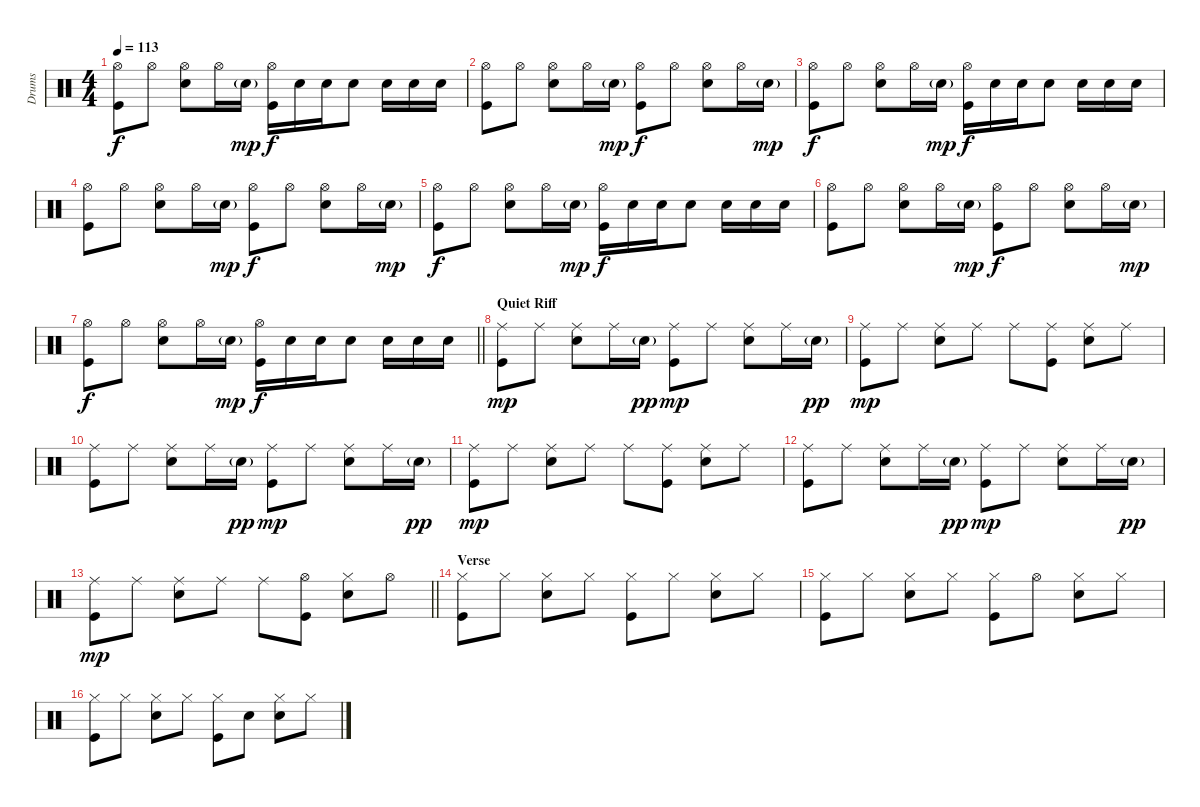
\track ("Drums" "Drums") {instrument percussion}
\staff {score}
\articulation defaults
\ts (4 4)
\tempo 113
\clef neutral
\ks c
("Hi-Hat (open)" "Kick (hit)").8{dy f} "Hi-Hat (open)".8 ("Hi-Hat (open)" "Snare (hit) 2").8 "Hi-Hat (open)".16 "Snare (hit) 2"{g}.16{dy mp} ("Hi-Hat (open)" "Kick (hit)").16{dy f} "Snare (hit) 2".16 "Snare (hit) 2".16 "Snare (hit) 2".8 "Snare (hit) 2".16 "Snare (hit) 2".16 "Snare (hit) 2".16 |
("Hi-Hat (open)" "Kick (hit)").8 "Hi-Hat (open)".8 ("Hi-Hat (open)" "Snare (hit) 2").8 "Hi-Hat (open)".16 "Snare (hit) 2"{g}.16{dy mp} ("Hi-Hat (open)" "Kick (hit)").8{dy f} "Hi-Hat (open)".8 ("Hi-Hat (open)" "Snare (hit) 2").8 "Hi-Hat (open)".16 "Snare (hit) 2"{g}.16{dy mp} |
("Hi-Hat (open)" "Kick (hit)").8{dy f} "Hi-Hat (open)".8 ("Hi-Hat (open)" "Snare (hit) 2").8 "Hi-Hat (open)".16 "Snare (hit) 2"{g}.16{dy mp} ("Hi-Hat (open)" "Kick (hit)").16{dy f} "Snare (hit) 2".16 "Snare (hit) 2".16 "Snare (hit) 2".8 "Snare (hit) 2".16 "Snare (hit) 2".16 "Snare (hit) 2".16 |
("Hi-Hat (open)" "Kick (hit)").8 "Hi-Hat (open)".8 ("Hi-Hat (open)" "Snare (hit) 2").8 "Hi-Hat (open)".16 "Snare (hit) 2"{g}.16{dy mp} ("Hi-Hat (open)" "Kick (hit)").8{dy f} "Hi-Hat (open)".8 ("Hi-Hat (open)" "Snare (hit) 2").8 "Hi-Hat (open)".16 "Snare (hit) 2"{g}.16{dy mp} |
("Hi-Hat (open)" "Kick (hit)").8{dy f} "Hi-Hat (open)".8 ("Hi-Hat (open)" "Snare (hit) 2").8 "Hi-Hat (open)".16 "Snare (hit) 2"{g}.16{dy mp} ("Hi-Hat (open)" "Kick (hit)").16{dy f} "Snare (hit) 2".16 "Snare (hit) 2".16 "Snare (hit) 2".8 "Snare (hit) 2".16 "Snare (hit) 2".16 "Snare (hit) 2".16 |
("Hi-Hat (open)" "Kick (hit)").8 "Hi-Hat (open)".8 ("Hi-Hat (open)" "Snare (hit) 2").8 "Hi-Hat (open)".16 "Snare (hit) 2"{g}.16{dy mp} ("Hi-Hat (open)" "Kick (hit)").8{dy f} "Hi-Hat (open)".8 ("Hi-Hat (open)" "Snare (hit) 2").8 "Hi-Hat (open)".16 "Snare (hit) 2"{g}.16{dy mp} |
\barLineRight lightlight
("Hi-Hat (open)" "Kick (hit)").8{dy f} "Hi-Hat (open)".8 ("Hi-Hat (open)" "Snare (hit) 2").8 "Hi-Hat (open)".16 "Snare (hit) 2"{g}.16{dy mp} ("Hi-Hat (open)" "Kick (hit)").16{dy f} "Snare (hit) 2".16 "Snare (hit) 2".16 "Snare (hit) 2".8 "Snare (hit) 2".16 "Snare (hit) 2".16 "Snare (hit) 2".16 |
\section ("" "Quiet Riff")
("Ride (middle)" "Kick (hit)").8{dy mp} "Ride (middle)".8 ("Ride (middle)" "Snare (hit) 2").8 "Ride (middle)".16 "Snare (hit) 2"{g}.16{dy pp} ("Ride (middle)" "Kick (hit)").8{dy mp} "Ride (middle)".8 ("Ride (middle)" "Snare (hit) 2").8 "Ride (middle)".16 "Snare (hit) 2"{g}.16{dy pp} |
("Ride (middle)" "Kick (hit)").8{dy mp} "Ride (middle)".8 ("Ride (middle)" "Snare (hit) 2").8 "Ride (middle)".8 "Ride (middle)".8 ("Ride (middle)" "Kick (hit)").8 ("Ride (middle)" "Snare (hit) 2").8 "Ride (middle)".8 |
("Ride (middle)" "Kick (hit)").8 "Ride (middle)".8 ("Ride (middle)" "Snare (hit) 2").8 "Ride (middle)".16 "Snare (hit) 2"{g}.16{dy pp} ("Ride (middle)" "Kick (hit)").8{dy mp} "Ride (middle)".8 ("Ride (middle)" "Snare (hit) 2").8 "Ride (middle)".16 "Snare (hit) 2"{g}.16{dy pp} |
("Ride (middle)" "Kick (hit)").8{dy mp} "Ride (middle)".8 ("Ride (middle)" "Snare (hit) 2").8 "Ride (middle)".8 "Ride (middle)".8 ("Ride (middle)" "Kick (hit)").8 ("Ride (middle)" "Snare (hit) 2").8 "Ride (middle)".8 |
("Ride (middle)" "Kick (hit)").8 "Ride (middle)".8 ("Ride (middle)" "Snare (hit) 2").8 "Ride (middle)".16 "Snare (hit) 2"{g}.16{dy pp} ("Ride (middle)" "Kick (hit)").8{dy mp} "Ride (middle)".8 ("Ride (middle)" "Snare (hit) 2").8 "Ride (middle)".16 "Snare (hit) 2"{g}.16{dy pp} |
\barLineRight lightlight
("Ride (middle)" "Kick (hit)").8{dy mp} "Ride (middle)".8 ("Ride (middle)" "Snare (hit) 2").8 "Ride (middle)".8 "Ride (middle)".8 ("Hi-Hat (open)" "Kick (hit)").8 ("Hi-Hat (closed)" "Snare (hit) 2").8 "Hi-Hat (open)".8 |
\section ("" "Verse")
("Hi-Hat (closed)" "Kick (hit)").8 "Hi-Hat (closed)".8 ("Hi-Hat (closed)" "Snare (hit) 2").8 "Hi-Hat (closed)".8 ("Hi-Hat (closed)" "Kick (hit)").8 "Hi-Hat (closed)".8 ("Hi-Hat (closed)" "Snare (hit) 2").8 "Hi-Hat (closed)".8 |
("Hi-Hat (closed)" "Kick (hit)").8 "Hi-Hat (closed)".8 ("Hi-Hat (closed)" "Snare (hit) 2").8 "Hi-Hat (closed)".8 ("Hi-Hat (closed)" "Kick (hit)").8 "Hi-Hat (open)".8 ("Hi-Hat (closed)" "Snare (hit) 2").8 "Hi-Hat (closed)".8 |
("Hi-Hat (closed)" "Kick (hit)").8 "Hi-Hat (closed)".8 ("Hi-Hat (closed)" "Snare (hit) 2").8 "Hi-Hat (closed)".8 ("Hi-Hat (closed)" "Kick (hit)").8 "Snare (hit)".8 ("Hi-Hat (closed)" "Snare (hit) 2").8 "Hi-Hat (closed)".8
